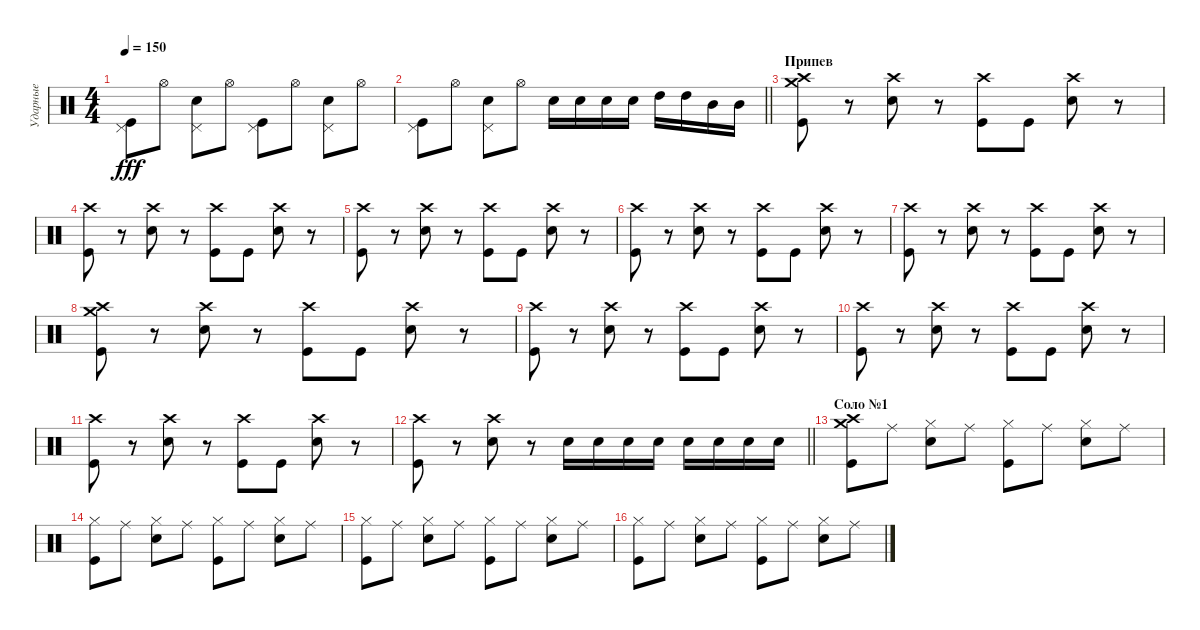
\track ("Ударные" "Ударные") {instrument percussion}
\staff {score}
\articulation defaults
\ts (4 4)
\tempo 150
\clef neutral
\ks c
("Kick (hit)" "Pedal Hi-Hat (hit)").8{dy fff} "Hi-Hat (open)".8 ("Electric Snare (hit)" "Pedal Hi-Hat (hit)").8 "Hi-Hat (open)".8 ("Kick (hit)" "Pedal Hi-Hat (hit)").8 "Hi-Hat (open)".8 ("Electric Snare (hit)" "Pedal Hi-Hat (hit)").8 "Hi-Hat (open)".8 |
\barLineRight lightlight
("Kick (hit)" "Pedal Hi-Hat (hit)").8 "Hi-Hat (open)".8 ("Electric Snare (hit)" "Pedal Hi-Hat (hit)").8 "Hi-Hat (open)".8 "Electric Snare (hit)".16 "Electric Snare (hit)".16 "Electric Snare (hit)".16 "Electric Snare (hit)".16 "High Tom (hit)".16 "High Tom (hit)".16 "Mid Tom (hit)".16 "Mid Tom (hit)".16 |
\section ("" "Припев")
("Crash medium (hit)" "Kick (hit)" "Crash high (hit)").8 r.8 ("Crash high (hit)" "Electric Snare (hit)").8 r.8 ("Crash high (hit)" "Kick (hit)").8 "Kick (hit)".8 ("Crash high (hit)" "Electric Snare (hit)").8 r.8 |
("Crash high (hit)" "Kick (hit)").8 r.8 ("Crash high (hit)" "Electric Snare (hit)").8 r.8 ("Crash high (hit)" "Kick (hit)").8 "Kick (hit)".8 ("Crash high (hit)" "Electric Snare (hit)").8 r.8 |
("Crash high (hit)" "Kick (hit)").8 r.8 ("Crash high (hit)" "Electric Snare (hit)").8 r.8 ("Crash high (hit)" "Kick (hit)").8 "Kick (hit)".8 ("Crash high (hit)" "Electric Snare (hit)").8 r.8 |
("Crash high (hit)" "Kick (hit)").8 r.8 ("Crash high (hit)" "Electric Snare (hit)").8 r.8 ("Crash high (hit)" "Kick (hit)").8 "Kick (hit)".8 ("Crash high (hit)" "Electric Snare (hit)").8 r.8 |
("Crash high (hit)" "Kick (hit)").8 r.8 ("Crash high (hit)" "Electric Snare (hit)").8 r.8 ("Crash high (hit)" "Kick (hit)").8 "Kick (hit)".8 ("Crash high (hit)" "Electric Snare (hit)").8 r.8 |
("Crash medium (hit)" "Kick (hit)" "Crash high (hit)").8 r.8 ("Crash high (hit)" "Electric Snare (hit)").8 r.8 ("Crash high (hit)" "Kick (hit)").8 "Kick (hit)".8 ("Crash high (hit)" "Electric Snare (hit)").8 r.8 |
("Crash high (hit)" "Kick (hit)").8 r.8 ("Crash high (hit)" "Electric Snare (hit)").8 r.8 ("Crash high (hit)" "Kick (hit)").8 "Kick (hit)".8 ("Crash high (hit)" "Electric Snare (hit)").8 r.8 |
("Crash high (hit)" "Kick (hit)").8 r.8 ("Crash high (hit)" "Electric Snare (hit)").8 r.8 ("Crash high (hit)" "Kick (hit)").8 "Kick (hit)".8 ("Crash high (hit)" "Electric Snare (hit)").8 r.8 |
("Crash high (hit)" "Kick (hit)").8 r.8 ("Crash high (hit)" "Electric Snare (hit)").8 r.8 ("Crash high (hit)" "Kick (hit)").8 "Kick (hit)".8 ("Crash high (hit)" "Electric Snare (hit)").8 r.8 |
\barLineRight lightlight
("Crash high (hit)" "Kick (hit)").8 r.8 ("Crash high (hit)" "Electric Snare (hit)").8 r.8 "Electric Snare (hit)".16 "Electric Snare (hit)".16 "Electric Snare (hit)".16 "Electric Snare (hit)".16 "Electric Snare (hit)".16 "Electric Snare (hit)".16 "Electric Snare (hit)".16 "Electric Snare (hit)".16 |
\section ("" "Соло №1")
("Crash medium (hit)" "Crash high (hit)" "Kick (hit)").8 "Ride (middle)".8 ("Hi-Hat (closed)" "Electric Snare (hit)").8 "Ride (middle)".8 ("Hi-Hat (closed)" "Kick (hit)").8 "Ride (middle)".8 ("Hi-Hat (closed)" "Electric Snare (hit)").8 "Ride (middle)".8 |
("Hi-Hat (closed)" "Kick (hit)").8 "Ride (middle)".8 ("Hi-Hat (closed)" "Electric Snare (hit)").8 "Ride (middle)".8 ("Hi-Hat (closed)" "Kick (hit)").8 "Ride (middle)".8 ("Hi-Hat (closed)" "Electric Snare (hit)").8 "Ride (middle)".8 |
("Hi-Hat (closed)" "Kick (hit)").8 "Ride (middle)".8 ("Hi-Hat (closed)" "Electric Snare (hit)").8 "Ride (middle)".8 ("Hi-Hat (closed)" "Kick (hit)").8 "Ride (middle)".8 ("Hi-Hat (closed)" "Electric Snare (hit)").8 "Ride (middle)".8 |
("Hi-Hat (closed)" "Kick (hit)").8 "Ride (middle)".8 ("Hi-Hat (closed)" "Electric Snare (hit)").8 "Ride (middle)".8 ("Hi-Hat (closed)" "Kick (hit)").8 "Ride (middle)".8 ("Hi-Hat (closed)" "Electric Snare (hit)").8 "Ride (middle)".8
